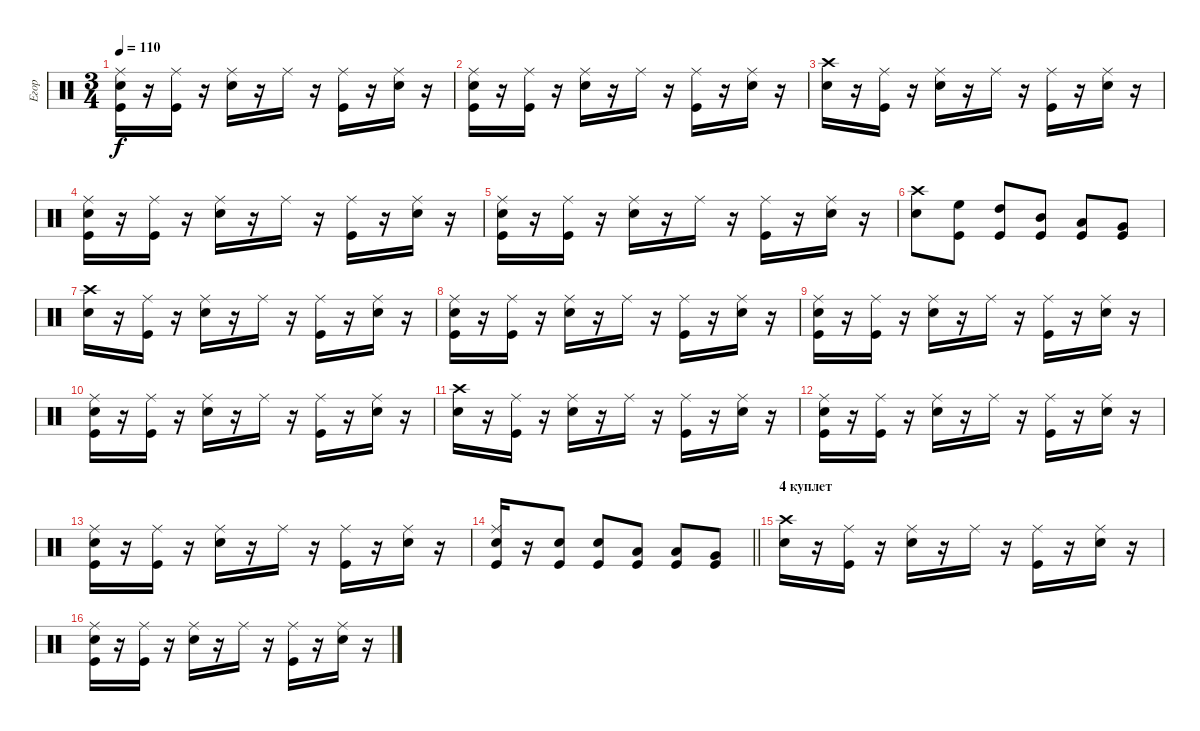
\track ("Егор" "Егор") {instrument percussion}
\staff {score}
\articulation defaults
\ts (3 4)
\tempo 110
\clef neutral
\ks c
("Kick (hit)" "Ride (middle)" "Snare (hit) 2").16{dy f} r.16 ("Ride (middle)" "Kick (hit)").16 r.16 ("Snare (hit) 2" "Ride (middle)").16 r.16 "Ride (middle)".16 r.16 ("Ride (middle)" "Kick (hit)").16 r.16 ("Ride (middle)" "Snare (hit) 2").16 r.16 |
("Kick (hit)" "Ride (middle)" "Snare (hit) 2").16 r.16 ("Ride (middle)" "Kick (hit)").16 r.16 ("Snare (hit) 2" "Ride (middle)").16 r.16 "Ride (middle)".16 r.16 ("Ride (middle)" "Kick (hit)").16 r.16 ("Ride (middle)" "Snare (hit) 2").16 r.16 |
("Snare (hit) 2" "Crash high (hit)").16 r.16 ("Ride (middle)" "Kick (hit)").16 r.16 ("Snare (hit) 2" "Ride (middle)").16 r.16 "Ride (middle)".16 r.16 ("Ride (middle)" "Kick (hit)").16 r.16 ("Ride (middle)" "Snare (hit) 2").16 r.16 |
("Kick (hit)" "Ride (middle)" "Snare (hit) 2").16 r.16 ("Ride (middle)" "Kick (hit)").16 r.16 ("Snare (hit) 2" "Ride (middle)").16 r.16 "Ride (middle)".16 r.16 ("Ride (middle)" "Kick (hit)").16 r.16 ("Ride (middle)" "Snare (hit) 2").16 r.16 |
("Kick (hit)" "Ride (middle)" "Snare (hit) 2").16 r.16 ("Ride (middle)" "Kick (hit)").16 r.16 ("Snare (hit) 2" "Ride (middle)").16 r.16 "Ride (middle)".16 r.16 ("Ride (middle)" "Kick (hit)").16 r.16 ("Ride (middle)" "Snare (hit) 2").16 r.16 |
("Snare (hit) 2" "Crash high (hit)").8 ("High Floor Tom (hit)" "Kick (hit)").8 ("High Tom (hit)" "Kick (hit)").8 ("Mid Tom (hit)" "Kick (hit)").8 ("Low Tom (hit)" "Kick (hit)").8 ("Very Low Tom (hit)" "Kick (hit)").8 |
("Snare (hit) 2" "Crash high (hit)").16 r.16 ("Ride (middle)" "Kick (hit)").16 r.16 ("Snare (hit) 2" "Ride (middle)").16 r.16 "Ride (middle)".16 r.16 ("Ride (middle)" "Kick (hit)").16 r.16 ("Ride (middle)" "Snare (hit) 2").16 r.16 |
("Kick (hit)" "Ride (middle)" "Snare (hit) 2").16 r.16 ("Ride (middle)" "Kick (hit)").16 r.16 ("Snare (hit) 2" "Ride (middle)").16 r.16 "Ride (middle)".16 r.16 ("Ride (middle)" "Kick (hit)").16 r.16 ("Ride (middle)" "Snare (hit) 2").16 r.16 |
("Kick (hit)" "Ride (middle)" "Snare (hit) 2").16 r.16 ("Ride (middle)" "Kick (hit)").16 r.16 ("Snare (hit) 2" "Ride (middle)").16 r.16 "Ride (middle)".16 r.16 ("Ride (middle)" "Kick (hit)").16 r.16 ("Ride (middle)" "Snare (hit) 2").16 r.16 |
("Kick (hit)" "Ride (middle)" "Snare (hit) 2").16 r.16 ("Ride (middle)" "Kick (hit)").16 r.16 ("Snare (hit) 2" "Ride (middle)").16 r.16 "Ride (middle)".16 r.16 ("Ride (middle)" "Kick (hit)").16 r.16 ("Ride (middle)" "Snare (hit) 2").16 r.16 |
("Snare (hit) 2" "Crash high (hit)").16 r.16 ("Ride (middle)" "Kick (hit)").16 r.16 ("Snare (hit) 2" "Ride (middle)").16 r.16 "Ride (middle)".16 r.16 ("Ride (middle)" "Kick (hit)").16 r.16 ("Ride (middle)" "Snare (hit) 2").16 r.16 |
("Kick (hit)" "Ride (middle)" "Snare (hit) 2").16 r.16 ("Ride (middle)" "Kick (hit)").16 r.16 ("Snare (hit) 2" "Ride (middle)").16 r.16 "Ride (middle)".16 r.16 ("Ride (middle)" "Kick (hit)").16 r.16 ("Ride (middle)" "Snare (hit) 2").16 r.16 |
("Kick (hit)" "Ride (middle)" "Snare (hit) 2").16 r.16 ("Ride (middle)" "Kick (hit)").16 r.16 ("Snare (hit) 2" "Ride (middle)").16 r.16 "Ride (middle)".16 r.16 ("Ride (middle)" "Kick (hit)").16 r.16 ("Ride (middle)" "Snare (hit) 2").16 r.16 |
\barLineRight lightlight
("Kick (hit)" "Ride (middle)" "Snare (hit) 2").16 r.16 ("Snare (hit) 2" "Kick (hit)").8 ("Snare (hit) 2" "Kick (hit)").8 ("Low Tom (hit)" "Kick (hit)").8 ("Low Tom (hit)" "Kick (hit)").8 ("Very Low Tom (hit)" "Kick (hit)").8 |
\section ("" "4 куплет")
("Snare (hit) 2" "Crash high (hit)").16 r.16 ("Ride (middle)" "Kick (hit)").16 r.16 ("Snare (hit) 2" "Ride (middle)").16 r.16 "Ride (middle)".16 r.16 ("Ride (middle)" "Kick (hit)").16 r.16 ("Ride (middle)" "Snare (hit) 2").16 r.16 |
("Kick (hit)" "Ride (middle)" "Snare (hit) 2").16 r.16 ("Ride (middle)" "Kick (hit)").16 r.16 ("Snare (hit) 2" "Ride (middle)").16 r.16 "Ride (middle)".16 r.16 ("Ride (middle)" "Kick (hit)").16 r.16 ("Ride (middle)" "Snare (hit) 2").16 r.16
